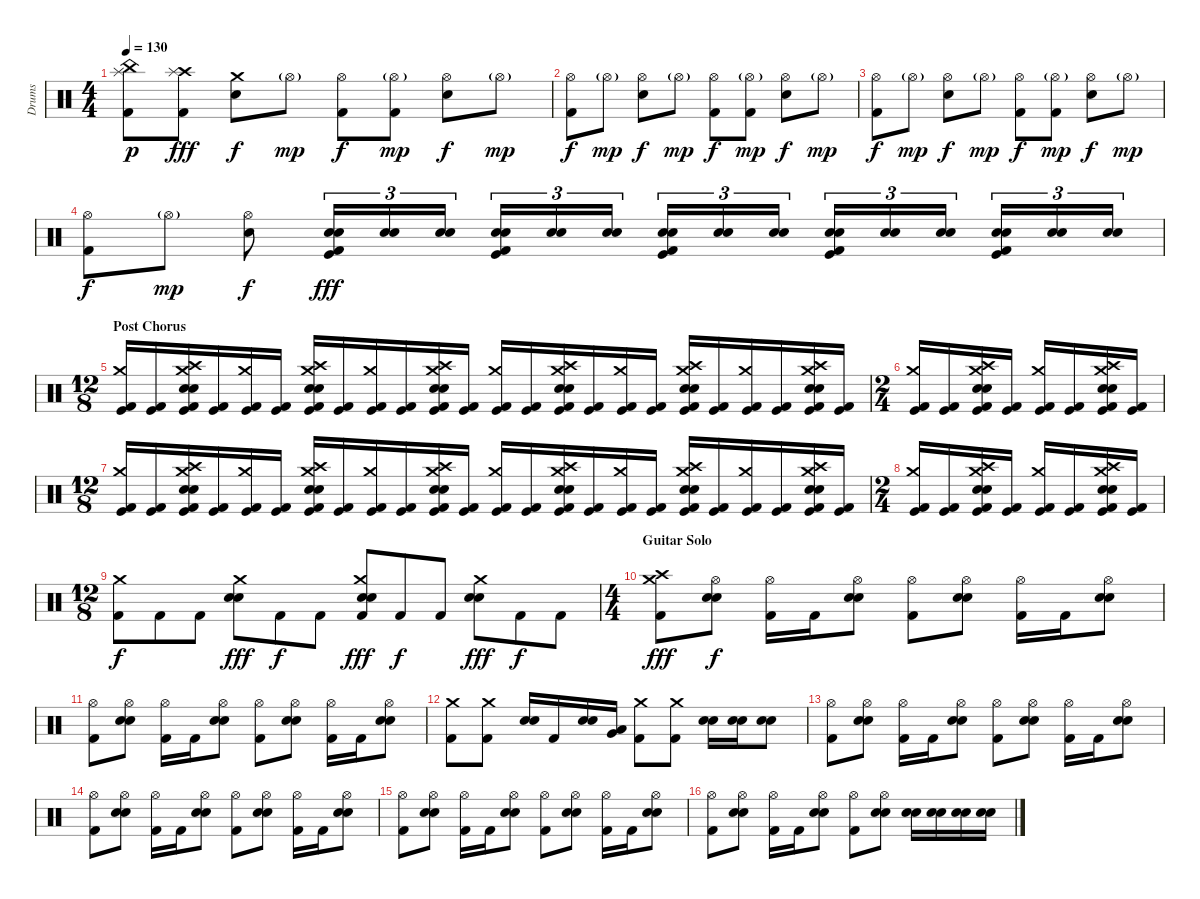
\track ("Drums" "Drums") {instrument percussion}
\staff {score}
\articulation defaults
\ts (4 4)
\tempo 130
\clef neutral
\ks c
("Splash (hit)" "China (hit)" "Kick (hit) 2").8{dy p} ("Crash high (hit)" "Splash (hit)" "Kick (hit) 2").8{dy fff} ("Crash medium (hit)" "Electric Snare (hit)").8{dy f} "Hi-Hat (open)"{g}.8{dy mp} ("Hi-Hat (open)" "Kick (hit) 2").8{dy f} ("Hi-Hat (open)"{g} "Kick (hit) 2").8{dy mp} ("Hi-Hat (open)" "Electric Snare (hit)").8{dy f} "Hi-Hat (open)"{g}.8{dy mp} |
("Hi-Hat (open)" "Kick (hit) 2").8{dy f} "Hi-Hat (open)"{g}.8{dy mp} ("Hi-Hat (open)" "Electric Snare (hit)").8{dy f} "Hi-Hat (open)"{g}.8{dy mp} ("Hi-Hat (open)" "Kick (hit) 2").8{dy f} ("Hi-Hat (open)"{g} "Kick (hit) 2").8{dy mp} ("Hi-Hat (open)" "Electric Snare (hit)").8{dy f} "Hi-Hat (open)"{g}.8{dy mp} |
("Hi-Hat (open)" "Kick (hit) 2").8{dy f} "Hi-Hat (open)"{g}.8{dy mp} ("Hi-Hat (open)" "Electric Snare (hit)").8{dy f} "Hi-Hat (open)"{g}.8{dy mp} ("Hi-Hat (open)" "Kick (hit) 2").8{dy f} ("Hi-Hat (open)"{g} "Kick (hit) 2").8{dy mp} ("Hi-Hat (open)" "Electric Snare (hit)").8{dy f} "Hi-Hat (open)"{g}.8{dy mp} |
("Hi-Hat (open)" "Kick (hit) 2").8{dy f} "Hi-Hat (open)"{g}.8{dy mp} ("Hi-Hat (open)" "Electric Snare (hit)").8{dy f} ("Electric Snare (hit)" "Snare (hit) 2" "Kick (hit)" "Kick (hit) 2").16{tu (3 2) dy fff} ("Electric Snare (hit)" "Snare (hit) 2").16{tu (3 2)} ("Electric Snare (hit)" "Snare (hit) 2").16{tu (3 2)} ("Electric Snare (hit)" "Snare (hit) 2" "Kick (hit)" "Kick (hit) 2").16{tu (3 2)} ("Electric Snare (hit)" "Snare (hit) 2").16{tu (3 2)} ("Electric Snare (hit)" "Snare (hit) 2").16{tu (3 2)} ("Electric Snare (hit)" "Snare (hit) 2" "Kick (hit)" "Kick (hit) 2").16{tu (3 2)} ("Electric Snare (hit)" "Snare (hit) 2").16{tu (3 2)} ("Electric Snare (hit)" "Snare (hit) 2").16{tu (3 2)} ("Electric Snare (hit)" "Snare (hit) 2" "Kick (hit)" "Kick (hit) 2").16{tu (3 2)} ("Electric Snare (hit)" "Snare (hit) 2").16{tu (3 2)} ("Electric Snare (hit)" "Snare (hit) 2").16{tu (3 2)} ("Electric Snare (hit)" "Snare (hit) 2" "Kick (hit)" "Kick (hit) 2").16{tu (3 2)} ("Electric Snare (hit)" "Snare (hit) 2").16{tu (3 2)} ("Electric Snare (hit)" "Snare (hit) 2").16{tu (3 2)} |
\ts (12 8)
\section ("" "Post Chorus")
("Crash medium (hit)" "Kick (hit)" "Kick (hit) 2").16{volume 12} ("Kick (hit)" "Kick (hit) 2").16 ("Crash medium (hit)" "Crash high (hit)" "Snare (hit) 2" "Electric Snare (hit)" "Kick (hit)" "Kick (hit) 2").16 ("Kick (hit)" "Kick (hit) 2").16 ("Crash medium (hit)" "Kick (hit)" "Kick (hit) 2").16 ("Kick (hit)" "Kick (hit) 2").16 ("Crash medium (hit)" "Crash high (hit)" "Snare (hit) 2" "Electric Snare (hit)" "Kick (hit)" "Kick (hit) 2").16 ("Kick (hit)" "Kick (hit) 2").16 ("Crash medium (hit)" "Kick (hit)" "Kick (hit) 2").16 ("Kick (hit)" "Kick (hit) 2").16 ("Crash medium (hit)" "Crash high (hit)" "Snare (hit) 2" "Electric Snare (hit)" "Kick (hit)" "Kick (hit) 2").16 ("Kick (hit)" "Kick (hit) 2").16 ("Crash medium (hit)" "Kick (hit)" "Kick (hit) 2").16 ("Kick (hit)" "Kick (hit) 2").16 ("Crash medium (hit)" "Crash high (hit)" "Snare (hit) 2" "Electric Snare (hit)" "Kick (hit)" "Kick (hit) 2").16 ("Kick (hit)" "Kick (hit) 2").16 ("Crash medium (hit)" "Kick (hit)" "Kick (hit) 2").16 ("Kick (hit)" "Kick (hit) 2").16 ("Crash medium (hit)" "Crash high (hit)" "Snare (hit) 2" "Electric Snare (hit)" "Kick (hit)" "Kick (hit) 2").16 ("Kick (hit)" "Kick (hit) 2").16 ("Crash medium (hit)" "Kick (hit)" "Kick (hit) 2").16 ("Kick (hit)" "Kick (hit) 2").16 ("Crash medium (hit)" "Crash high (hit)" "Snare (hit) 2" "Electric Snare (hit)" "Kick (hit)" "Kick (hit) 2").16 ("Kick (hit)" "Kick (hit) 2").16 |
\ts (2 4)
("Crash medium (hit)" "Kick (hit)" "Kick (hit) 2").16 ("Kick (hit)" "Kick (hit) 2").16 ("Crash medium (hit)" "Crash high (hit)" "Snare (hit) 2" "Electric Snare (hit)" "Kick (hit)" "Kick (hit) 2").16 ("Kick (hit)" "Kick (hit) 2").16 ("Crash medium (hit)" "Kick (hit)" "Kick (hit) 2").16 ("Kick (hit)" "Kick (hit) 2").16 ("Crash medium (hit)" "Crash high (hit)" "Snare (hit) 2" "Electric Snare (hit)" "Kick (hit)" "Kick (hit) 2").16 ("Kick (hit)" "Kick (hit) 2").16 |
\ts (12 8)
("Crash medium (hit)" "Kick (hit)" "Kick (hit) 2").16 ("Kick (hit)" "Kick (hit) 2").16 ("Crash medium (hit)" "Crash high (hit)" "Snare (hit) 2" "Electric Snare (hit)" "Kick (hit)" "Kick (hit) 2").16 ("Kick (hit)" "Kick (hit) 2").16 ("Crash medium (hit)" "Kick (hit)" "Kick (hit) 2").16 ("Kick (hit)" "Kick (hit) 2").16 ("Crash medium (hit)" "Crash high (hit)" "Snare (hit) 2" "Electric Snare (hit)" "Kick (hit)" "Kick (hit) 2").16 ("Kick (hit)" "Kick (hit) 2").16 ("Crash medium (hit)" "Kick (hit)" "Kick (hit) 2").16 ("Kick (hit)" "Kick (hit) 2").16 ("Crash medium (hit)" "Crash high (hit)" "Snare (hit) 2" "Electric Snare (hit)" "Kick (hit)" "Kick (hit) 2").16 ("Kick (hit)" "Kick (hit) 2").16 ("Crash medium (hit)" "Kick (hit)" "Kick (hit) 2").16 ("Kick (hit)" "Kick (hit) 2").16 ("Crash medium (hit)" "Crash high (hit)" "Snare (hit) 2" "Electric Snare (hit)" "Kick (hit)" "Kick (hit) 2").16 ("Kick (hit)" "Kick (hit) 2").16 ("Crash medium (hit)" "Kick (hit)" "Kick (hit) 2").16 ("Kick (hit)" "Kick (hit) 2").16 ("Crash medium (hit)" "Crash high (hit)" "Snare (hit) 2" "Electric Snare (hit)" "Kick (hit)" "Kick (hit) 2").16 ("Kick (hit)" "Kick (hit) 2").16 ("Crash medium (hit)" "Kick (hit)" "Kick (hit) 2").16 ("Kick (hit)" "Kick (hit) 2").16 ("Crash medium (hit)" "Crash high (hit)" "Snare (hit) 2" "Electric Snare (hit)" "Kick (hit)" "Kick (hit) 2").16 ("Kick (hit)" "Kick (hit) 2").16 |
\ts (2 4)
("Crash medium (hit)" "Kick (hit)" "Kick (hit) 2").16 ("Kick (hit)" "Kick (hit) 2").16 ("Crash medium (hit)" "Crash high (hit)" "Snare (hit) 2" "Electric Snare (hit)" "Kick (hit)" "Kick (hit) 2").16 ("Kick (hit)" "Kick (hit) 2").16 ("Crash medium (hit)" "Kick (hit)" "Kick (hit) 2").16 ("Kick (hit)" "Kick (hit) 2").16 ("Crash medium (hit)" "Crash high (hit)" "Snare (hit) 2" "Electric Snare (hit)" "Kick (hit)" "Kick (hit) 2").16 ("Kick (hit)" "Kick (hit) 2").16 |
\ts (12 8)
("Crash medium (hit)" "Kick (hit) 2").8{dy f volume 14} "Kick (hit) 2".8 "Kick (hit) 2".8 ("Crash medium (hit)" "Snare (hit) 2" "Electric Snare (hit)").8{dy fff} "Kick (hit) 2".8{dy f} "Kick (hit) 2".8 ("Crash medium (hit)" "Snare (hit) 2" "Electric Snare (hit)" "Kick (hit) 2").8{dy fff} "Kick (hit) 2".8{dy f} "Kick (hit) 2".8 ("Crash medium (hit)" "Snare (hit) 2" "Electric Snare (hit)").8{dy fff} "Kick (hit) 2".8{dy f} "Kick (hit) 2".8 |
\ts (4 4)
\section ("" "Guitar Solo")
("Crash medium (hit)" "Crash high (hit)" "Kick (hit) 2").8{dy fff} ("Hi-Hat (open)" "Snare (hit) 2" "Electric Snare (hit)").8{dy f} ("Hi-Hat (open)" "Kick (hit) 2").16 "Kick (hit) 2".16 ("Hi-Hat (open)" "Snare (hit) 2" "Electric Snare (hit)").8 ("Hi-Hat (open)" "Kick (hit) 2").8 ("Hi-Hat (open)" "Snare (hit) 2" "Electric Snare (hit)").8 ("Hi-Hat (open)" "Kick (hit) 2").16 "Kick (hit) 2".16 ("Hi-Hat (open)" "Snare (hit) 2" "Electric Snare (hit)").8 |
("Hi-Hat (open)" "Kick (hit) 2").8 ("Hi-Hat (open)" "Snare (hit) 2" "Electric Snare (hit)").8 ("Hi-Hat (open)" "Kick (hit) 2").16 "Kick (hit) 2".16 ("Hi-Hat (open)" "Snare (hit) 2" "Electric Snare (hit)").8 ("Hi-Hat (open)" "Kick (hit) 2").8 ("Hi-Hat (open)" "Snare (hit) 2" "Electric Snare (hit)").8 ("Hi-Hat (open)" "Kick (hit) 2").16 "Kick (hit) 2".16 ("Hi-Hat (open)" "Snare (hit) 2" "Electric Snare (hit)").8 |
("Crash medium (hit)" "Kick (hit) 2").8 ("Crash medium (hit)" "Kick (hit) 2").8 ("Snare (hit) 2" "Electric Snare (hit)").16 "Kick (hit) 2".16 ("Snare (hit) 2" "Electric Snare (hit)").16 ("Very Low Tom (hit)" "Low Floor Tom (hit)").16 ("Crash medium (hit)" "Kick (hit) 2").8 ("Crash medium (hit)" "Kick (hit) 2").8 ("Snare (hit) 2" "Electric Snare (hit)").16 ("Snare (hit) 2" "Electric Snare (hit)").16 ("Snare (hit) 2" "Electric Snare (hit)").8 |
("Hi-Hat (open)" "Kick (hit) 2").8 ("Hi-Hat (open)" "Snare (hit) 2" "Electric Snare (hit)").8 ("Hi-Hat (open)" "Kick (hit) 2").16 "Kick (hit) 2".16 ("Hi-Hat (open)" "Snare (hit) 2" "Electric Snare (hit)").8 ("Hi-Hat (open)" "Kick (hit) 2").8 ("Hi-Hat (open)" "Snare (hit) 2" "Electric Snare (hit)").8 ("Hi-Hat (open)" "Kick (hit) 2").16 "Kick (hit) 2".16 ("Hi-Hat (open)" "Snare (hit) 2" "Electric Snare (hit)").8 |
("Hi-Hat (open)" "Kick (hit) 2").8 ("Hi-Hat (open)" "Snare (hit) 2" "Electric Snare (hit)").8 ("Hi-Hat (open)" "Kick (hit) 2").16 "Kick (hit) 2".16 ("Hi-Hat (open)" "Snare (hit) 2" "Electric Snare (hit)").8 ("Hi-Hat (open)" "Kick (hit) 2").8 ("Hi-Hat (open)" "Snare (hit) 2" "Electric Snare (hit)").8 ("Hi-Hat (open)" "Kick (hit) 2").16 "Kick (hit) 2".16 ("Hi-Hat (open)" "Snare (hit) 2" "Electric Snare (hit)").8 |
("Hi-Hat (open)" "Kick (hit) 2").8 ("Hi-Hat (open)" "Snare (hit) 2" "Electric Snare (hit)").8 ("Hi-Hat (open)" "Kick (hit) 2").16 "Kick (hit) 2".16 ("Hi-Hat (open)" "Snare (hit) 2" "Electric Snare (hit)").8 ("Hi-Hat (open)" "Kick (hit) 2").8 ("Hi-Hat (open)" "Snare (hit) 2" "Electric Snare (hit)").8 ("Hi-Hat (open)" "Kick (hit) 2").16 "Kick (hit) 2".16 ("Hi-Hat (open)" "Snare (hit) 2" "Electric Snare (hit)").8 |
("Hi-Hat (open)" "Kick (hit) 2").8 ("Hi-Hat (open)" "Snare (hit) 2" "Electric Snare (hit)").8 ("Hi-Hat (open)" "Kick (hit) 2").16 "Kick (hit) 2".16 ("Hi-Hat (open)" "Snare (hit) 2" "Electric Snare (hit)").8 ("Hi-Hat (open)" "Kick (hit) 2").8 ("Hi-Hat (open)" "Snare (hit) 2" "Electric Snare (hit)").8 ("Snare (hit) 2" "Electric Snare (hit)").16 ("Snare (hit) 2" "Electric Snare (hit)").16 ("Snare (hit) 2" "Electric Snare (hit)").16 ("Snare (hit) 2" "Electric Snare (hit)").16
